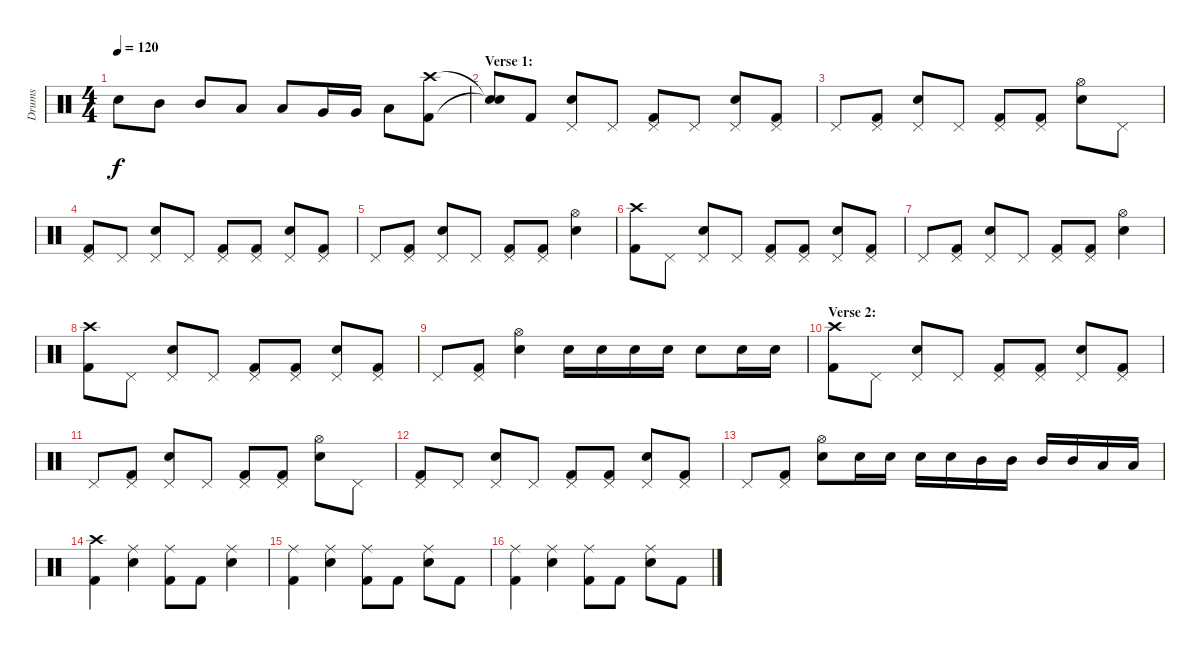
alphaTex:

\track ("Drums" "Drums") {instrument percussion}
\staff {score}
\articulation defaults
\ts (4 4)
\tempo 120
\clef neutral
\ks c "Electric Snare (hit)".8{dy f} "Mid Tom (hit)".8 "Mid Tom (hit)".8 "Low Tom (hit)".8 "Low Tom (hit)".8 "Very Low Tom (hit)".16 "Very Low Tom (hit)".16 "Low Floor Tom (hit)".8
("Crash high (hit)" "Kick (hit) 2").8 |
\section ("" "Verse 1:")
("Snare (hit)"{t} "Snare (hit)"{t}).8 "Kick (hit) 2".8 ("Pedal Hi-Hat (hit)" "Electric Snare (hit)").8 "Pedal Hi-Hat (hit)".8 ("Pedal Hi-Hat (hit)" "Kick (hit) 2").8 "Pedal Hi-Hat (hit)".8 ("Pedal Hi-Hat (hit)" "Electric Snare (hit)").8 ("Pedal Hi-Hat (hit)" "Kick (hit) 2").8 |
"Pedal Hi-Hat (hit)".8 ("Pedal Hi-Hat (hit)" "Kick (hit) 2").8 ("Pedal Hi-Hat (hit)" "Electric Snare (hit)").8 "Pedal Hi-Hat (hit)".8 ("Pedal Hi-Hat (hit)" "Kick (hit) 2").8 ("Pedal Hi-Hat (hit)" "Kick (hit) 2").8 ("Hi-Hat (open)" "Electric Snare (hit)").8 "Pedal Hi-Hat (hit)".8 |
("Pedal Hi-Hat (hit)" "Kick (hit) 2").8 "Pedal Hi-Hat (hit)".8 ("Pedal Hi-Hat (hit)" "Electric Snare (hit)").8 "Pedal Hi-Hat (hit)".8 ("Pedal Hi-Hat (hit)" "Kick (hit) 2").8 ("Pedal Hi-Hat (hit)" "Kick (hit) 2").8 ("Pedal Hi-Hat (hit)" "Electric Snare (hit)").8 ("Pedal Hi-Hat (hit)" "Kick (hit) 2").8 |
"Pedal Hi-Hat (hit)".8 ("Pedal Hi-Hat (hit)" "Kick (hit) 2").8 ("Pedal Hi-Hat (hit)" "Electric Snare (hit)").8 "Pedal Hi-Hat (hit)".8 ("Pedal Hi-Hat (hit)" "Kick (hit) 2").8 ("Pedal Hi-Hat (hit)" "Kick (hit) 2").8 ("Hi-Hat (open)" "Electric Snare (hit)").4 |
("Crash high (hit)" "Kick (hit) 2").8 "Pedal Hi-Hat (hit)".8 ("Pedal Hi-Hat (hit)" "Electric Snare (hit)").8 "Pedal Hi-Hat (hit)".8 ("Pedal Hi-Hat (hit)" "Kick (hit) 2").8 ("Pedal Hi-Hat (hit)" "Kick (hit) 2").8 ("Pedal Hi-Hat (hit)" "Electric Snare (hit)").8 ("Pedal Hi-Hat (hit)" "Kick (hit) 2").8 |
"Pedal Hi-Hat (hit)".8 ("Pedal Hi-Hat (hit)" "Kick (hit) 2").8 ("Pedal Hi-Hat (hit)" "Electric Snare (hit)").8 "Pedal Hi-Hat (hit)".8 ("Pedal Hi-Hat (hit)" "Kick (hit) 2").8 ("Pedal Hi-Hat (hit)" "Kick (hit) 2").8 ("Hi-Hat (open)" "Electric Snare (hit)").4 |
("Crash high (hit)" "Kick (hit) 2").8 "Pedal Hi-Hat (hit)".8 ("Pedal Hi-Hat (hit)" "Electric Snare (hit)").8 "Pedal Hi-Hat (hit)".8 ("Pedal Hi-Hat (hit)" "Kick (hit) 2").8 ("Pedal Hi-Hat (hit)" "Kick (hit) 2").8 ("Pedal Hi-Hat (hit)" "Electric Snare (hit)").8 ("Pedal Hi-Hat (hit)" "Kick (hit) 2").8 |
"Pedal Hi-Hat (hit)".8 ("Pedal Hi-Hat (hit)" "Kick (hit) 2").8 ("Hi-Hat (open)" "Electric Snare (hit)").4 "Electric Snare (hit)".16 "Electric Snare (hit)".16 "Electric Snare (hit)".16 "Electric Snare (hit)".16 "Electric Snare (hit)".8 "Electric Snare (hit)".16 "Electric Snare (hit)".16 |
\section ("" "Verse 2:")
("Crash high (hit)" "Kick (hit) 2").8 "Pedal Hi-Hat (hit)".8 ("Pedal Hi-Hat (hit)" "Electric Snare (hit)").8 "Pedal Hi-Hat (hit)".8 ("Pedal Hi-Hat (hit)" "Kick (hit) 2").8 ("Pedal Hi-Hat (hit)" "Kick (hit) 2").8 ("Pedal Hi-Hat (hit)" "Electric Snare (hit)").8 ("Pedal Hi-Hat (hit)" "Kick (hit) 2").8 |
"Pedal Hi-Hat (hit)".8 ("Pedal Hi-Hat (hit)" "Kick (hit) 2").8 ("Pedal Hi-Hat (hit)" "Electric Snare (hit)").8 "Pedal Hi-Hat (hit)".8 ("Pedal Hi-Hat (hit)" "Kick (hit) 2").8 ("Pedal Hi-Hat (hit)" "Kick (hit) 2").8 ("Hi-Hat (open)" "Electric Snare (hit)").8 "Pedal Hi-Hat (hit)".8 |
("Pedal Hi-Hat (hit)" "Kick (hit) 2").8 "Pedal Hi-Hat (hit)".8 ("Pedal Hi-Hat (hit)" "Electric Snare (hit)").8 "Pedal Hi-Hat (hit)".8 ("Pedal Hi-Hat (hit)" "Kick (hit) 2").8 ("Pedal Hi-Hat (hit)" "Kick (hit) 2").8 ("Pedal Hi-Hat (hit)" "Electric Snare (hit)").8 ("Pedal Hi-Hat (hit)" "Kick (hit) 2").8 |
"Pedal Hi-Hat (hit)".8 ("Pedal Hi-Hat (hit)" "Kick (hit) 2").8 ("Hi-Hat (open)" "Electric Snare (hit)").8 "Electric Snare (hit)".16 "Electric Snare (hit)".16 "Electric Snare (hit)".16 "Electric Snare (hit)".16 "Mid Tom (hit)".16 "Mid Tom (hit)".16 "Mid Tom (hit)".16 "Mid Tom (hit)".16 "Low Tom (hit)".16 "Low Tom (hit)".16 |
("Crash high (hit)" "Kick (hit) 2").4 ("Ride (middle)" "Electric Snare (hit)").4 ("Ride (middle)" "Kick (hit) 2").8 "Kick (hit) 2".8 ("Ride (middle)" "Electric Snare (hit)").4 |
("Ride (middle)" "Kick (hit) 2").4 ("Ride (middle)" "Electric Snare (hit)").4 ("Ride (middle)" "Kick (hit) 2").8 "Kick (hit) 2".8 ("Ride (middle)" "Electric Snare (hit)").8 "Kick (hit) 2".8 |
("Ride (middle)" "Kick (hit) 2").4 ("Ride (middle)" "Electric Snare (hit)").4 ("Ride (middle)" "Kick (hit) 2").8 "Kick (hit) 2".8 ("Ride (middle)" "Electric Snare (hit)").8 "Kick (hit) 2".8
